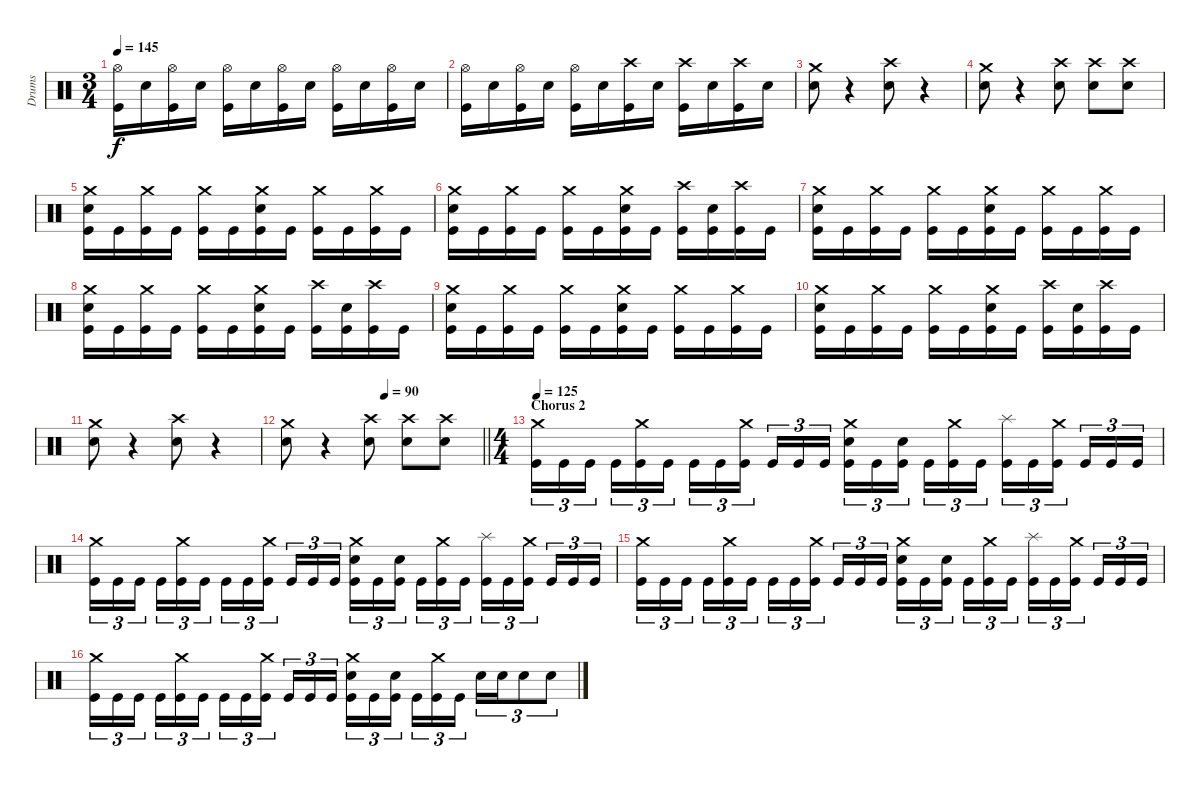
\track ("Drums" "Drums") {instrument percussion}
\staff {score}
\articulation defaults
\ts (3 4)
\tempo 145
\clef neutral
\ks c
("Hi-Hat (open)" "Kick (hit)").16{dy f} "Snare (hit) 2".16 ("Hi-Hat (open)" "Kick (hit)").16 "Snare (hit) 2".16 ("Hi-Hat (open)" "Kick (hit)").16 "Snare (hit) 2".16 ("Hi-Hat (open)" "Kick (hit)").16 "Snare (hit) 2".16 ("Hi-Hat (open)" "Kick (hit)").16 "Snare (hit) 2".16 ("Hi-Hat (open)" "Kick (hit)").16 "Snare (hit) 2".16 |
("Hi-Hat (open)" "Kick (hit)").16 "Snare (hit) 2".16 ("Hi-Hat (open)" "Kick (hit)").16 "Snare (hit) 2".16 ("Hi-Hat (open)" "Kick (hit)").16 "Snare (hit) 2".16 ("Crash high (hit)" "Kick (hit)").16 "Snare (hit) 2".16 ("Crash high (hit)" "Kick (hit)").16 "Snare (hit) 2".16 ("Crash high (hit)" "Kick (hit)").16 "Snare (hit) 2".16 |
("Crash medium (hit)" "Snare (hit) 2").8 r.4 ("Crash high (hit)" "Snare (hit) 2").8 r.4 |
("Crash medium (hit)" "Snare (hit) 2").8 r.4 ("Crash high (hit)" "Snare (hit) 2").8 ("Crash high (hit)" "Snare (hit) 2").8 ("Crash high (hit)" "Snare (hit) 2").8 |
("Crash medium (hit)" "Snare (hit) 2" "Kick (hit)").16 "Kick (hit)".16 ("Crash medium (hit)" "Kick (hit)").16 "Kick (hit)".16 ("Crash medium (hit)" "Kick (hit)").16 "Kick (hit)".16 ("Crash medium (hit)" "Snare (hit) 2" "Kick (hit)").16 "Kick (hit)".16 ("Crash medium (hit)" "Kick (hit)").16 "Kick (hit)".16 ("Crash medium (hit)" "Kick (hit)").16 "Kick (hit)".16 |
("Crash medium (hit)" "Snare (hit) 2" "Kick (hit)").16 "Kick (hit)".16 ("Crash medium (hit)" "Kick (hit)").16 "Kick (hit)".16 ("Crash medium (hit)" "Kick (hit)").16 "Kick (hit)".16 ("Crash medium (hit)" "Snare (hit) 2" "Kick (hit)").16 "Kick (hit)".16 ("Crash high (hit)" "Kick (hit)").16 ("Snare (hit) 2" "Kick (hit)").16 ("Crash high (hit)" "Kick (hit)").16 "Kick (hit)".16 |
("Crash medium (hit)" "Snare (hit) 2" "Kick (hit)").16 "Kick (hit)".16 ("Crash medium (hit)" "Kick (hit)").16 "Kick (hit)".16 ("Crash medium (hit)" "Kick (hit)").16 "Kick (hit)".16 ("Crash medium (hit)" "Snare (hit) 2" "Kick (hit)").16 "Kick (hit)".16 ("Crash medium (hit)" "Kick (hit)").16 "Kick (hit)".16 ("Crash medium (hit)" "Kick (hit)").16 "Kick (hit)".16 |
("Crash medium (hit)" "Snare (hit) 2" "Kick (hit)").16 "Kick (hit)".16 ("Crash medium (hit)" "Kick (hit)").16 "Kick (hit)".16 ("Crash medium (hit)" "Kick (hit)").16 "Kick (hit)".16 ("Crash medium (hit)" "Snare (hit) 2" "Kick (hit)").16 "Kick (hit)".16 ("Crash high (hit)" "Kick (hit)").16 ("Snare (hit) 2" "Kick (hit)").16 ("Crash high (hit)" "Kick (hit)").16 "Kick (hit)".16 |
("Crash medium (hit)" "Snare (hit) 2" "Kick (hit)").16 "Kick (hit)".16 ("Crash medium (hit)" "Kick (hit)").16 "Kick (hit)".16 ("Crash medium (hit)" "Kick (hit)").16 "Kick (hit)".16 ("Crash medium (hit)" "Snare (hit) 2" "Kick (hit)").16 "Kick (hit)".16 ("Crash medium (hit)" "Kick (hit)").16 "Kick (hit)".16 ("Crash medium (hit)" "Kick (hit)").16 "Kick (hit)".16 |
("Crash medium (hit)" "Snare (hit) 2" "Kick (hit)").16 "Kick (hit)".16 ("Crash medium (hit)" "Kick (hit)").16 "Kick (hit)".16 ("Crash medium (hit)" "Kick (hit)").16 "Kick (hit)".16 ("Crash medium (hit)" "Snare (hit) 2" "Kick (hit)").16 "Kick (hit)".16 ("Crash high (hit)" "Kick (hit)").16 ("Snare (hit) 2" "Kick (hit)").16 ("Crash high (hit)" "Kick (hit)").16 "Kick (hit)".16 |
("Crash medium (hit)" "Snare (hit) 2").8 r.4 ("Crash high (hit)" "Snare (hit) 2").8 r.4 |
\tempo (90 0.5)
\barLineRight lightlight
("Crash medium (hit)" "Snare (hit) 2").8 r.4 ("Crash high (hit)" "Snare (hit) 2").8 ("Crash high (hit)" "Snare (hit) 2").8 ("Crash high (hit)" "Snare (hit) 2").8 |
\ts (4 4)
\section ("" "Chorus 2")
\tempo 125
("Crash medium (hit)" "Kick (hit)").16{tu (3 2)} "Kick (hit)".16{tu (3 2)} "Kick (hit)".16{tu (3 2) beam splitsecondary} "Kick (hit)".16{tu (3 2)} ("Crash medium (hit)" "Kick (hit)").16{tu (3 2)} "Kick (hit)".16{tu (3 2)} "Kick (hit)".16{tu (3 2)} "Kick (hit)".16{tu (3 2)} ("Crash medium (hit)" "Kick (hit)").16{tu (3 2) beam splitsecondary} "Kick (hit)".16{tu (3 2)} "Kick (hit)".16{tu (3 2)} "Kick (hit)".16{tu (3 2)} ("Crash medium (hit)" "Snare (hit) 2" "Kick (hit)").16{tu (3 2)} "Kick (hit)".16{tu (3 2)} ("Snare (hit) 2" "Kick (hit)").16{tu (3 2) beam splitsecondary} "Kick (hit)".16{tu (3 2)} ("Crash medium (hit)" "Kick (hit)").16{tu (3 2)} "Kick (hit)".16{tu (3 2)} ("Splash (hit)" "Kick (hit)").16{tu (3 2)} "Kick (hit)".16{tu (3 2)} ("Crash medium (hit)" "Kick (hit)").16{tu (3 2) beam splitsecondary} "Kick (hit)".16{tu (3 2)} "Kick (hit)".16{tu (3 2)} "Kick (hit)".16{tu (3 2)} |
("Crash medium (hit)" "Kick (hit)").16{tu (3 2)} "Kick (hit)".16{tu (3 2)} "Kick (hit)".16{tu (3 2) beam splitsecondary} "Kick (hit)".16{tu (3 2)} ("Crash medium (hit)" "Kick (hit)").16{tu (3 2)} "Kick (hit)".16{tu (3 2)} "Kick (hit)".16{tu (3 2)} "Kick (hit)".16{tu (3 2)} ("Crash medium (hit)" "Kick (hit)").16{tu (3 2) beam splitsecondary} "Kick (hit)".16{tu (3 2)} "Kick (hit)".16{tu (3 2)} "Kick (hit)".16{tu (3 2)} ("Crash medium (hit)" "Snare (hit) 2" "Kick (hit)").16{tu (3 2)} "Kick (hit)".16{tu (3 2)} ("Snare (hit) 2" "Kick (hit)").16{tu (3 2) beam splitsecondary} "Kick (hit)".16{tu (3 2)} ("Crash medium (hit)" "Kick (hit)").16{tu (3 2)} "Kick (hit)".16{tu (3 2)} ("Splash (hit)" "Kick (hit)").16{tu (3 2)} "Kick (hit)".16{tu (3 2)} ("Crash medium (hit)" "Kick (hit)").16{tu (3 2) beam splitsecondary} "Kick (hit)".16{tu (3 2)} "Kick (hit)".16{tu (3 2)} "Kick (hit)".16{tu (3 2)} |
("Crash medium (hit)" "Kick (hit)").16{tu (3 2)} "Kick (hit)".16{tu (3 2)} "Kick (hit)".16{tu (3 2) beam splitsecondary} "Kick (hit)".16{tu (3 2)} ("Crash medium (hit)" "Kick (hit)").16{tu (3 2)} "Kick (hit)".16{tu (3 2)} "Kick (hit)".16{tu (3 2)} "Kick (hit)".16{tu (3 2)} ("Crash medium (hit)" "Kick (hit)").16{tu (3 2) beam splitsecondary} "Kick (hit)".16{tu (3 2)} "Kick (hit)".16{tu (3 2)} "Kick (hit)".16{tu (3 2)} ("Crash medium (hit)" "Snare (hit) 2" "Kick (hit)").16{tu (3 2)} "Kick (hit)".16{tu (3 2)} ("Snare (hit) 2" "Kick (hit)").16{tu (3 2) beam splitsecondary} "Kick (hit)".16{tu (3 2)} ("Crash medium (hit)" "Kick (hit)").16{tu (3 2)} "Kick (hit)".16{tu (3 2)} ("Splash (hit)" "Kick (hit)").16{tu (3 2)} "Kick (hit)".16{tu (3 2)} ("Crash medium (hit)" "Kick (hit)").16{tu (3 2) beam splitsecondary} "Kick (hit)".16{tu (3 2)} "Kick (hit)".16{tu (3 2)} "Kick (hit)".16{tu (3 2)} |
("Crash medium (hit)" "Kick (hit)").16{tu (3 2)} "Kick (hit)".16{tu (3 2)} "Kick (hit)".16{tu (3 2) beam splitsecondary} "Kick (hit)".16{tu (3 2)} ("Crash medium (hit)" "Kick (hit)").16{tu (3 2)} "Kick (hit)".16{tu (3 2)} "Kick (hit)".16{tu (3 2)} "Kick (hit)".16{tu (3 2)} ("Crash medium (hit)" "Kick (hit)").16{tu (3 2) beam splitsecondary} "Kick (hit)".16{tu (3 2)} "Kick (hit)".16{tu (3 2)} "Kick (hit)".16{tu (3 2)} ("Crash medium (hit)" "Snare (hit) 2" "Kick (hit)").16{tu (3 2)} "Kick (hit)".16{tu (3 2)} ("Snare (hit) 2" "Kick (hit)").16{tu (3 2) beam splitsecondary} "Kick (hit)".16{tu (3 2)} ("Crash medium (hit)" "Kick (hit)").16{tu (3 2)} "Kick (hit)".16{tu (3 2)} "Snare (hit) 2".16{tu (3 2)} "Snare (hit) 2".16{tu (3 2)} "Snare (hit) 2".8{tu (3 2)} "Snare (hit) 2".8{tu (3 2)}
